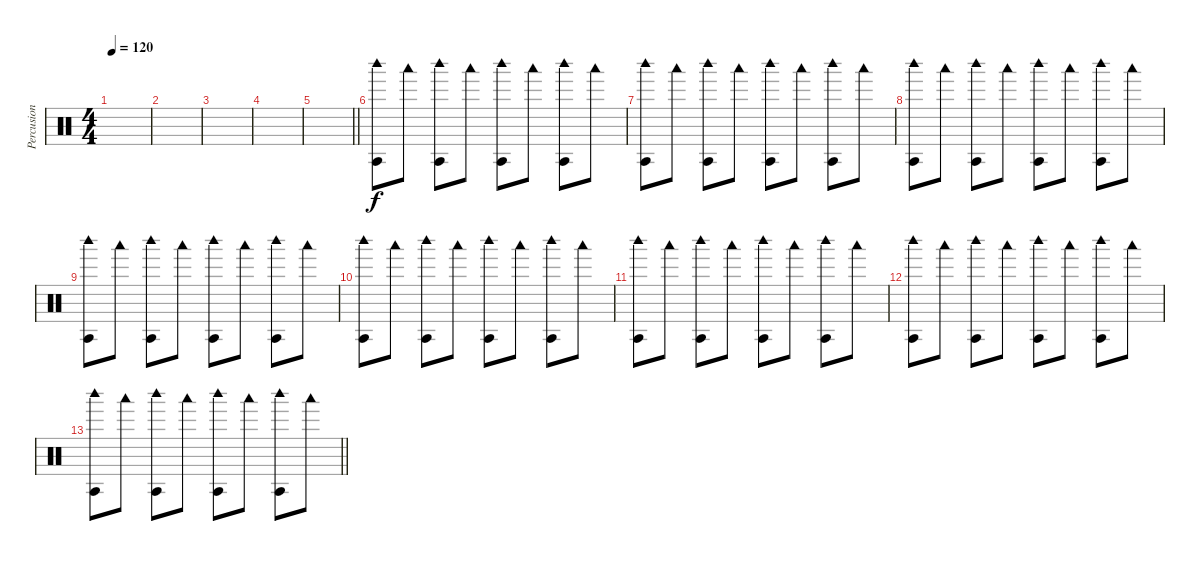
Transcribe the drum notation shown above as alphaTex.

\track ("Percusion" "Percusion") {instrument percussion}
\staff
\articulation defaults
\ts (4 4)
\tempo 120
\clef neutral
\ks c
|
|
|
|
\barLineRight lightlight
|
("Woodblock high (hit)" "Agogo tow (hit)").8 "Woodblock low (hit)".8 ("Woodblock high (hit)" "Agogo tow (hit)").8 "Woodblock low (hit)".8 ("Woodblock high (hit)" "Agogo tow (hit)").8 "Woodblock low (hit)".8 ("Woodblock high (hit)" "Agogo tow (hit)").8 "Woodblock low (hit)".8 |
("Woodblock high (hit)" "Agogo tow (hit)").8 "Woodblock low (hit)".8 ("Woodblock high (hit)" "Agogo tow (hit)").8 "Woodblock low (hit)".8 ("Woodblock high (hit)" "Agogo tow (hit)").8 "Woodblock low (hit)".8 ("Woodblock high (hit)" "Agogo tow (hit)").8 "Woodblock low (hit)".8 |
("Woodblock high (hit)" "Agogo tow (hit)").8 "Woodblock low (hit)".8 ("Woodblock high (hit)" "Agogo tow (hit)").8 "Woodblock low (hit)".8 ("Woodblock high (hit)" "Agogo tow (hit)").8 "Woodblock low (hit)".8 ("Woodblock high (hit)" "Agogo tow (hit)").8 "Woodblock low (hit)".8 |
("Woodblock high (hit)" "Agogo tow (hit)").8 "Woodblock low (hit)".8 ("Woodblock high (hit)" "Agogo tow (hit)").8 "Woodblock low (hit)".8 ("Woodblock high (hit)" "Agogo tow (hit)").8 "Woodblock low (hit)".8 ("Woodblock high (hit)" "Agogo tow (hit)").8 "Woodblock low (hit)".8 |
("Woodblock high (hit)" "Agogo tow (hit)").8 "Woodblock low (hit)".8 ("Woodblock high (hit)" "Agogo tow (hit)").8 "Woodblock low (hit)".8 ("Woodblock high (hit)" "Agogo tow (hit)").8 "Woodblock low (hit)".8 ("Woodblock high (hit)" "Agogo tow (hit)").8 "Woodblock low (hit)".8 |
("Woodblock high (hit)" "Agogo tow (hit)").8 "Woodblock low (hit)".8 ("Woodblock high (hit)" "Agogo tow (hit)").8 "Woodblock low (hit)".8 ("Woodblock high (hit)" "Agogo tow (hit)").8 "Woodblock low (hit)".8 ("Woodblock high (hit)" "Agogo tow (hit)").8 "Woodblock low (hit)".8 |
("Woodblock high (hit)" "Agogo tow (hit)").8 "Woodblock low (hit)".8 ("Woodblock high (hit)" "Agogo tow (hit)").8 "Woodblock low (hit)".8 ("Woodblock high (hit)" "Agogo tow (hit)").8 "Woodblock low (hit)".8 ("Woodblock high (hit)" "Agogo tow (hit)").8 "Woodblock low (hit)".8 |
\barLineRight lightlight
("Woodblock high (hit)" "Agogo tow (hit)").8 "Woodblock low (hit)".8 ("Woodblock high (hit)" "Agogo tow (hit)").8 "Woodblock low (hit)".8 ("Woodblock high (hit)" "Agogo tow (hit)").8 "Woodblock low (hit)".8 ("Woodblock high (hit)" "Agogo tow (hit)").8 "Woodblock low (hit)".8
